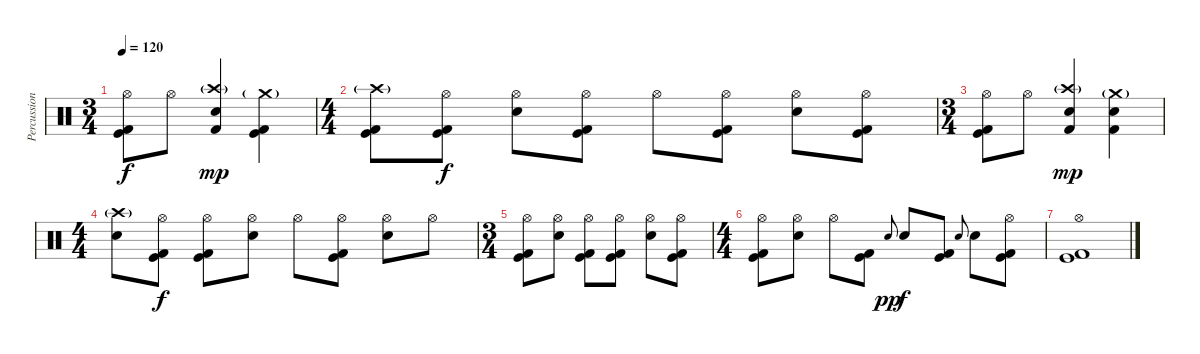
\track ("Percussion" "Percussion") {instrument percussion}
\staff {score}
\articulation defaults
\ts (3 4)
\tempo 120
\clef neutral
\ks c
("Hi-Hat (open)" "Kick (hit)" "Kick (hit) 2").8{dy f} "Hi-Hat (open)".8 ("Crash high (hit)"{g} "Electric Snare (hit)" "Kick (hit) 2").4{dy mp} ("Crash medium (hit)"{g} "Kick (hit)" "Kick (hit) 2").4 |
\ts (4 4)
("Crash high (hit)"{g} "Kick (hit)" "Kick (hit) 2").8 ("Hi-Hat (open)" "Kick (hit)" "Kick (hit) 2").8{dy f} ("Hi-Hat (open)" "Electric Snare (hit)").8 ("Hi-Hat (open)" "Kick (hit)" "Kick (hit) 2").8 "Hi-Hat (open)".8 ("Hi-Hat (open)" "Kick (hit)" "Kick (hit) 2").8 ("Hi-Hat (open)" "Electric Snare (hit)").8 ("Hi-Hat (open)" "Kick (hit)" "Kick (hit) 2").8 |
\ts (3 4)
("Hi-Hat (open)" "Kick (hit)" "Kick (hit) 2").8 "Hi-Hat (open)".8 ("Crash high (hit)"{g} "Electric Snare (hit)" "Kick (hit) 2").4{dy mp} ("Crash medium (hit)"{g} "Electric Snare (hit)" "Kick (hit) 2").4 |
\ts (4 4)
("Crash high (hit)"{g} "Electric Snare (hit)").8 ("Hi-Hat (open)" "Kick (hit)" "Kick (hit) 2").8{dy f} ("Hi-Hat (open)" "Kick (hit)" "Kick (hit) 2").8 ("Hi-Hat (open)" "Electric Snare (hit)").8 "Hi-Hat (open)".8 ("Hi-Hat (open)" "Kick (hit)" "Kick (hit) 2").8 ("Hi-Hat (open)" "Electric Snare (hit)").8 "Hi-Hat (open)".8 |
\ts (3 4)
("Hi-Hat (open)" "Kick (hit)" "Kick (hit) 2").8 ("Hi-Hat (open)" "Electric Snare (hit)").8 ("Hi-Hat (open)" "Kick (hit)" "Kick (hit) 2").8 ("Hi-Hat (open)" "Kick (hit)" "Kick (hit) 2").8 ("Hi-Hat (open)" "Electric Snare (hit)").8 ("Hi-Hat (open)" "Kick (hit)" "Kick (hit) 2").8 |
\ts (4 4)
("Hi-Hat (open)" "Kick (hit)" "Kick (hit) 2").8 ("Hi-Hat (open)" "Electric Snare (hit)").8 "Hi-Hat (open)".8 ("Kick (hit)" "Kick (hit) 2").8 "Electric Snare (hit)".8{gr onbeat dy pp} "Electric Snare (hit)".8{dy f} ("Kick (hit)" "Kick (hit) 2").8 "Electric Snare (hit)".8{gr onbeat} "Electric Snare (hit)".8 ("Hi-Hat (open)" "Kick (hit)" "Kick (hit) 2").8 |
("Hi-Hat (open)" "Kick (hit)" "Kick (hit) 2").1
